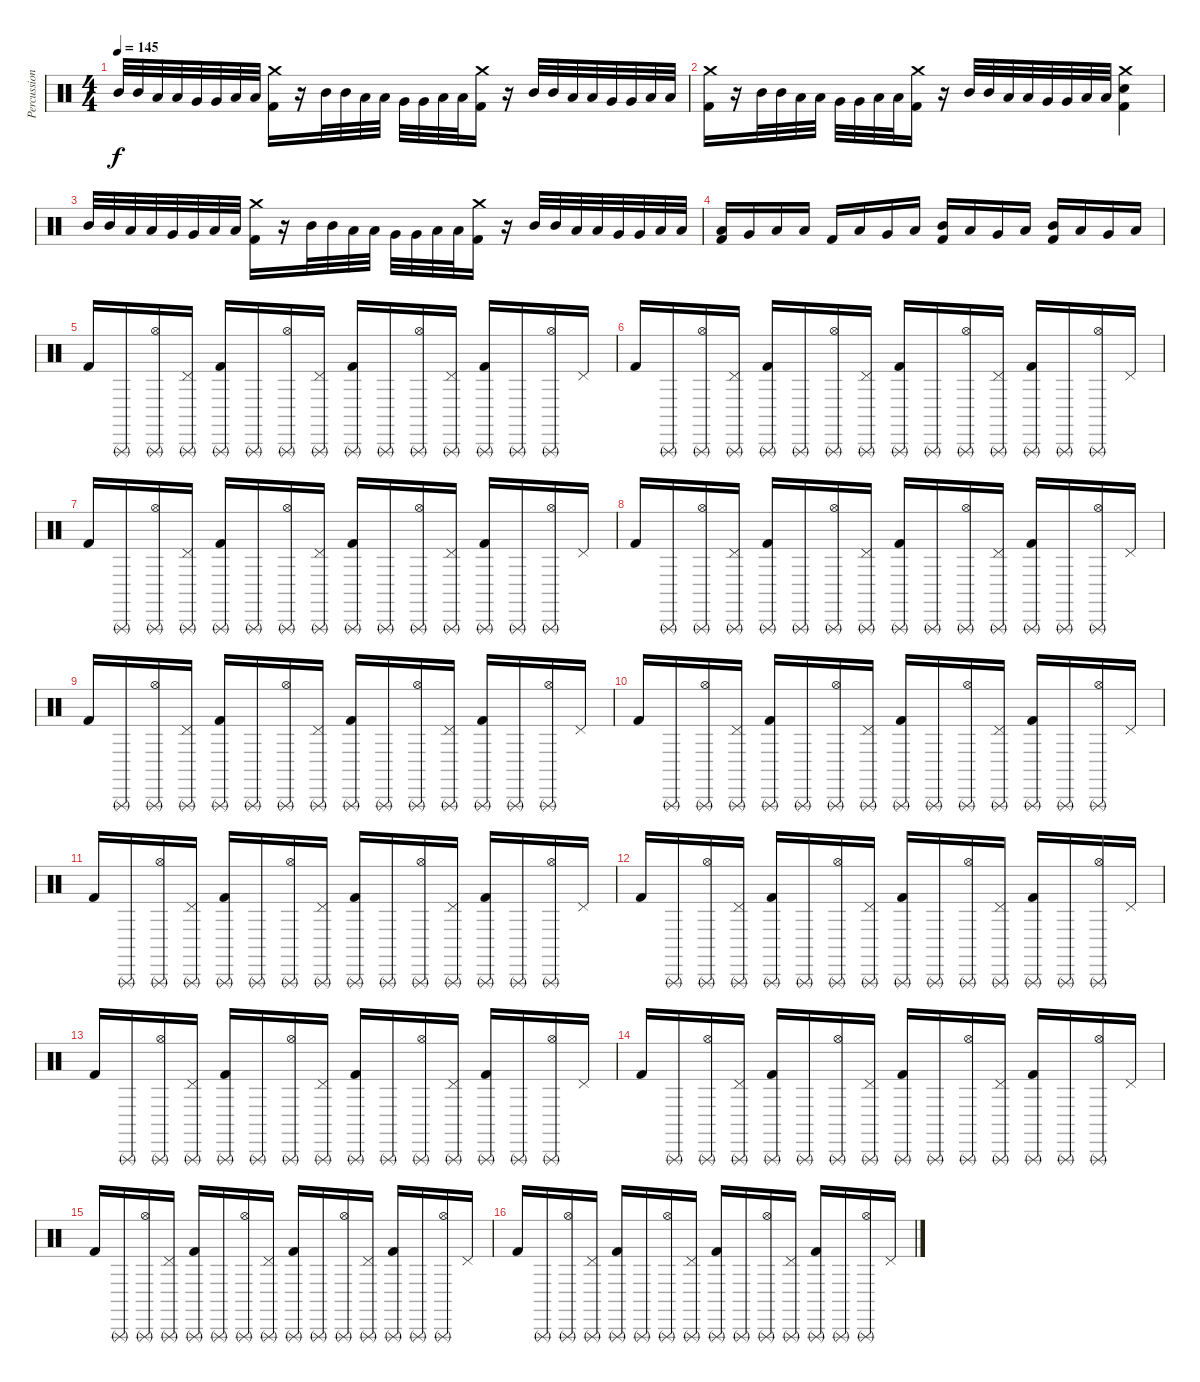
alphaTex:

\track ("Percussion" "Percussion") {instrument percussion}
\staff {score}
\articulation defaults
\ts (4 4)
\tempo 145
\clef neutral
\ks c "Mid Tom (hit)".32{dy f} "Mid Tom (hit)".32 "Low Tom (hit)".32 "Low Tom (hit)".32 "Very Low Tom (hit)".32 "Very Low Tom (hit)".32 "Low Floor Tom (hit)".32 "Low Floor Tom (hit)".32
("Crash medium (hit)" "Kick (hit) 2").16 r.16 "Mid Tom (hit)".32 "Mid Tom (hit)".32 "Low Tom (hit)".32 "Low Tom (hit)".32 "Very Low Tom (hit)".32 "Very Low Tom (hit)".32 "Low Floor Tom (hit)".32 "Low Floor Tom (hit)".32 ("Crash medium (hit)" "Kick (hit) 2").16 r.16 "Mid Tom (hit)".32 "Mid Tom (hit)".32 "Low Tom (hit)".32 "Low Tom (hit)".32 "Very Low Tom (hit)".32 "Very Low Tom (hit)".32 "Low Floor Tom (hit)".32 "Low Floor Tom (hit)".32 |
("Crash medium (hit)" "Kick (hit) 2").16 r.16 "Mid Tom (hit)".32 "Mid Tom (hit)".32 "Low Tom (hit)".32 "Low Tom (hit)".32 "Very Low Tom (hit)".32 "Very Low Tom (hit)".32 "Low Floor Tom (hit)".32 "Low Floor Tom (hit)".32 ("Crash medium (hit)" "Kick (hit) 2").16 r.16 "Mid Tom (hit)".32 "Mid Tom (hit)".32 "Low Tom (hit)".32 "Low Tom (hit)".32 "Very Low Tom (hit)".32 "Very Low Tom (hit)".32 "Low Floor Tom (hit)".32 "Low Floor Tom (hit)".32 ("Crash medium (hit)" "Electric Snare (hit)" "Kick (hit) 2").4 |
"Mid Tom (hit)".32 "Mid Tom (hit)".32 "Low Tom (hit)".32 "Low Tom (hit)".32 "Very Low Tom (hit)".32 "Very Low Tom (hit)".32 "Low Floor Tom (hit)".32 "Low Floor Tom (hit)".32 ("Crash medium (hit)" "Kick (hit) 2").16 r.16 "Mid Tom (hit)".32 "Mid Tom (hit)".32 "Low Tom (hit)".32 "Low Tom (hit)".32 "Very Low Tom (hit)".32 "Very Low Tom (hit)".32 "Low Floor Tom (hit)".32 "Low Floor Tom (hit)".32 ("Crash medium (hit)" "Kick (hit) 2").16 r.16 "Mid Tom (hit)".32 "Mid Tom (hit)".32 "Low Tom (hit)".32 "Low Tom (hit)".32 "Very Low Tom (hit)".32 "Very Low Tom (hit)".32 "Low Floor Tom (hit)".32 "Low Floor Tom (hit)".32 |
("Low Tom (hit)" "Kick (hit) 2").16 "Very Low Tom (hit)".16 "Low Floor Tom (hit)".16 "Low Floor Tom (hit)".16 "Kick (hit) 2".16 "Low Tom (hit)".16 "Very Low Tom (hit)".16 "Low Floor Tom (hit)".16 ("Mid Tom (hit)" "Kick (hit) 2").16 "Low Tom (hit)".16 "Very Low Tom (hit)".16 "Low Floor Tom (hit)".16 ("Mid Tom (hit)" "Kick (hit) 2").16 "Low Tom (hit)".16 "Very Low Tom (hit)".16 "Low Floor Tom (hit)".16 |
"Kick (hit) 2".16 "Triangle (rnute)".16 ("Triangle (rnute)" "Hi-Hat (open)").16 ("Triangle (rnute)" "Pedal Hi-Hat (hit)").16 ("Triangle (rnute)" "Kick (hit) 2").16 "Triangle (rnute)".16 ("Triangle (rnute)" "Hi-Hat (open)").16 ("Triangle (rnute)" "Pedal Hi-Hat (hit)").16 ("Triangle (rnute)" "Kick (hit) 2").16 "Triangle (rnute)".16 ("Triangle (rnute)" "Hi-Hat (open)").16 ("Triangle (rnute)" "Pedal Hi-Hat (hit)").16 ("Triangle (rnute)" "Kick (hit) 2").16 "Triangle (rnute)".16 ("Triangle (rnute)" "Hi-Hat (open)").16 "Pedal Hi-Hat (hit)".16 |
"Kick (hit) 2".16 "Triangle (rnute)".16 ("Triangle (rnute)" "Hi-Hat (open)").16 ("Triangle (rnute)" "Pedal Hi-Hat (hit)").16 ("Triangle (rnute)" "Kick (hit) 2").16 "Triangle (rnute)".16 ("Triangle (rnute)" "Hi-Hat (open)").16 ("Triangle (rnute)" "Pedal Hi-Hat (hit)").16 ("Triangle (rnute)" "Kick (hit) 2").16 "Triangle (rnute)".16 ("Triangle (rnute)" "Hi-Hat (open)").16 ("Triangle (rnute)" "Pedal Hi-Hat (hit)").16 ("Triangle (rnute)" "Kick (hit) 2").16 "Triangle (rnute)".16 ("Triangle (rnute)" "Hi-Hat (open)").16 "Pedal Hi-Hat (hit)".16 |
"Kick (hit) 2".16 "Triangle (rnute)".16 ("Triangle (rnute)" "Hi-Hat (open)").16 ("Triangle (rnute)" "Pedal Hi-Hat (hit)").16 ("Triangle (rnute)" "Kick (hit) 2").16 "Triangle (rnute)".16 ("Triangle (rnute)" "Hi-Hat (open)").16 ("Triangle (rnute)" "Pedal Hi-Hat (hit)").16 ("Triangle (rnute)" "Kick (hit) 2").16 "Triangle (rnute)".16 ("Triangle (rnute)" "Hi-Hat (open)").16 ("Triangle (rnute)" "Pedal Hi-Hat (hit)").16 ("Triangle (rnute)" "Kick (hit) 2").16 "Triangle (rnute)".16 ("Triangle (rnute)" "Hi-Hat (open)").16 "Pedal Hi-Hat (hit)".16 |
"Kick (hit) 2".16 "Triangle (rnute)".16 ("Triangle (rnute)" "Hi-Hat (open)").16 ("Triangle (rnute)" "Pedal Hi-Hat (hit)").16 ("Triangle (rnute)" "Kick (hit) 2").16 "Triangle (rnute)".16 ("Triangle (rnute)" "Hi-Hat (open)").16 ("Triangle (rnute)" "Pedal Hi-Hat (hit)").16 ("Triangle (rnute)" "Kick (hit) 2").16 "Triangle (rnute)".16 ("Triangle (rnute)" "Hi-Hat (open)").16 ("Triangle (rnute)" "Pedal Hi-Hat (hit)").16 ("Triangle (rnute)" "Kick (hit) 2").16 "Triangle (rnute)".16 ("Triangle (rnute)" "Hi-Hat (open)").16 "Pedal Hi-Hat (hit)".16 |
"Kick (hit) 2".16 "Triangle (rnute)".16 ("Triangle (rnute)" "Hi-Hat (open)").16 ("Triangle (rnute)" "Pedal Hi-Hat (hit)").16 ("Triangle (rnute)" "Kick (hit) 2").16 "Triangle (rnute)".16 ("Triangle (rnute)" "Hi-Hat (open)").16 ("Triangle (rnute)" "Pedal Hi-Hat (hit)").16 ("Triangle (rnute)" "Kick (hit) 2").16 "Triangle (rnute)".16 ("Triangle (rnute)" "Hi-Hat (open)").16 ("Triangle (rnute)" "Pedal Hi-Hat (hit)").16 ("Triangle (rnute)" "Kick (hit) 2").16 "Triangle (rnute)".16 ("Triangle (rnute)" "Hi-Hat (open)").16 "Pedal Hi-Hat (hit)".16 |
"Kick (hit) 2".16 "Triangle (rnute)".16 ("Triangle (rnute)" "Hi-Hat (open)").16 ("Triangle (rnute)" "Pedal Hi-Hat (hit)").16 ("Triangle (rnute)" "Kick (hit) 2").16 "Triangle (rnute)".16 ("Triangle (rnute)" "Hi-Hat (open)").16 ("Triangle (rnute)" "Pedal Hi-Hat (hit)").16 ("Triangle (rnute)" "Kick (hit) 2").16 "Triangle (rnute)".16 ("Triangle (rnute)" "Hi-Hat (open)").16 ("Triangle (rnute)" "Pedal Hi-Hat (hit)").16 ("Triangle (rnute)" "Kick (hit) 2").16 "Triangle (rnute)".16 ("Triangle (rnute)" "Hi-Hat (open)").16 "Pedal Hi-Hat (hit)".16 |
"Kick (hit) 2".16 "Triangle (rnute)".16 ("Triangle (rnute)" "Hi-Hat (open)").16 ("Triangle (rnute)" "Pedal Hi-Hat (hit)").16 ("Triangle (rnute)" "Kick (hit) 2").16 "Triangle (rnute)".16 ("Triangle (rnute)" "Hi-Hat (open)").16 ("Triangle (rnute)" "Pedal Hi-Hat (hit)").16 ("Triangle (rnute)" "Kick (hit) 2").16 "Triangle (rnute)".16 ("Triangle (rnute)" "Hi-Hat (open)").16 ("Triangle (rnute)" "Pedal Hi-Hat (hit)").16 ("Triangle (rnute)" "Kick (hit) 2").16 "Triangle (rnute)".16 ("Triangle (rnute)" "Hi-Hat (open)").16 "Pedal Hi-Hat (hit)".16 |
"Kick (hit) 2".16 "Triangle (rnute)".16 ("Triangle (rnute)" "Hi-Hat (open)").16 ("Triangle (rnute)" "Pedal Hi-Hat (hit)").16 ("Triangle (rnute)" "Kick (hit) 2").16 "Triangle (rnute)".16 ("Triangle (rnute)" "Hi-Hat (open)").16 ("Triangle (rnute)" "Pedal Hi-Hat (hit)").16 ("Triangle (rnute)" "Kick (hit) 2").16 "Triangle (rnute)".16 ("Triangle (rnute)" "Hi-Hat (open)").16 ("Triangle (rnute)" "Pedal Hi-Hat (hit)").16 ("Triangle (rnute)" "Kick (hit) 2").16 "Triangle (rnute)".16 ("Triangle (rnute)" "Hi-Hat (open)").16 "Pedal Hi-Hat (hit)".16 |
"Kick (hit) 2".16 "Triangle (rnute)".16 ("Triangle (rnute)" "Hi-Hat (open)").16 ("Triangle (rnute)" "Pedal Hi-Hat (hit)").16 ("Triangle (rnute)" "Kick (hit) 2").16 "Triangle (rnute)".16 ("Triangle (rnute)" "Hi-Hat (open)").16 ("Triangle (rnute)" "Pedal Hi-Hat (hit)").16 ("Triangle (rnute)" "Kick (hit) 2").16 "Triangle (rnute)".16 ("Triangle (rnute)" "Hi-Hat (open)").16 ("Triangle (rnute)" "Pedal Hi-Hat (hit)").16 ("Triangle (rnute)" "Kick (hit) 2").16 "Triangle (rnute)".16 ("Triangle (rnute)" "Hi-Hat (open)").16 "Pedal Hi-Hat (hit)".16 |
"Kick (hit) 2".16 "Triangle (rnute)".16 ("Triangle (rnute)" "Hi-Hat (open)").16 ("Triangle (rnute)" "Pedal Hi-Hat (hit)").16 ("Triangle (rnute)" "Kick (hit) 2").16 "Triangle (rnute)".16 ("Triangle (rnute)" "Hi-Hat (open)").16 ("Triangle (rnute)" "Pedal Hi-Hat (hit)").16 ("Triangle (rnute)" "Kick (hit) 2").16 "Triangle (rnute)".16 ("Triangle (rnute)" "Hi-Hat (open)").16 ("Triangle (rnute)" "Pedal Hi-Hat (hit)").16 ("Triangle (rnute)" "Kick (hit) 2").16 "Triangle (rnute)".16 ("Triangle (rnute)" "Hi-Hat (open)").16 "Pedal Hi-Hat (hit)".16 |
"Kick (hit) 2".16 "Triangle (rnute)".16 ("Triangle (rnute)" "Hi-Hat (open)").16 ("Triangle (rnute)" "Pedal Hi-Hat (hit)").16 ("Triangle (rnute)" "Kick (hit) 2").16 "Triangle (rnute)".16 ("Triangle (rnute)" "Hi-Hat (open)").16 ("Triangle (rnute)" "Pedal Hi-Hat (hit)").16 ("Triangle (rnute)" "Kick (hit) 2").16 "Triangle (rnute)".16 ("Triangle (rnute)" "Hi-Hat (open)").16 ("Triangle (rnute)" "Pedal Hi-Hat (hit)").16 ("Triangle (rnute)" "Kick (hit) 2").16 "Triangle (rnute)".16 ("Triangle (rnute)" "Hi-Hat (open)").16 "Pedal Hi-Hat (hit)".16 |
"Kick (hit) 2".16 "Triangle (rnute)".16 ("Triangle (rnute)" "Hi-Hat (open)").16 ("Triangle (rnute)" "Pedal Hi-Hat (hit)").16 ("Triangle (rnute)" "Kick (hit) 2").16 "Triangle (rnute)".16 ("Triangle (rnute)" "Hi-Hat (open)").16 ("Triangle (rnute)" "Pedal Hi-Hat (hit)").16 ("Triangle (rnute)" "Kick (hit) 2").16 "Triangle (rnute)".16 ("Triangle (rnute)" "Hi-Hat (open)").16 ("Triangle (rnute)" "Pedal Hi-Hat (hit)").16 ("Triangle (rnute)" "Kick (hit) 2").16 "Triangle (rnute)".16 ("Triangle (rnute)" "Hi-Hat (open)").16 "Pedal Hi-Hat (hit)".16
